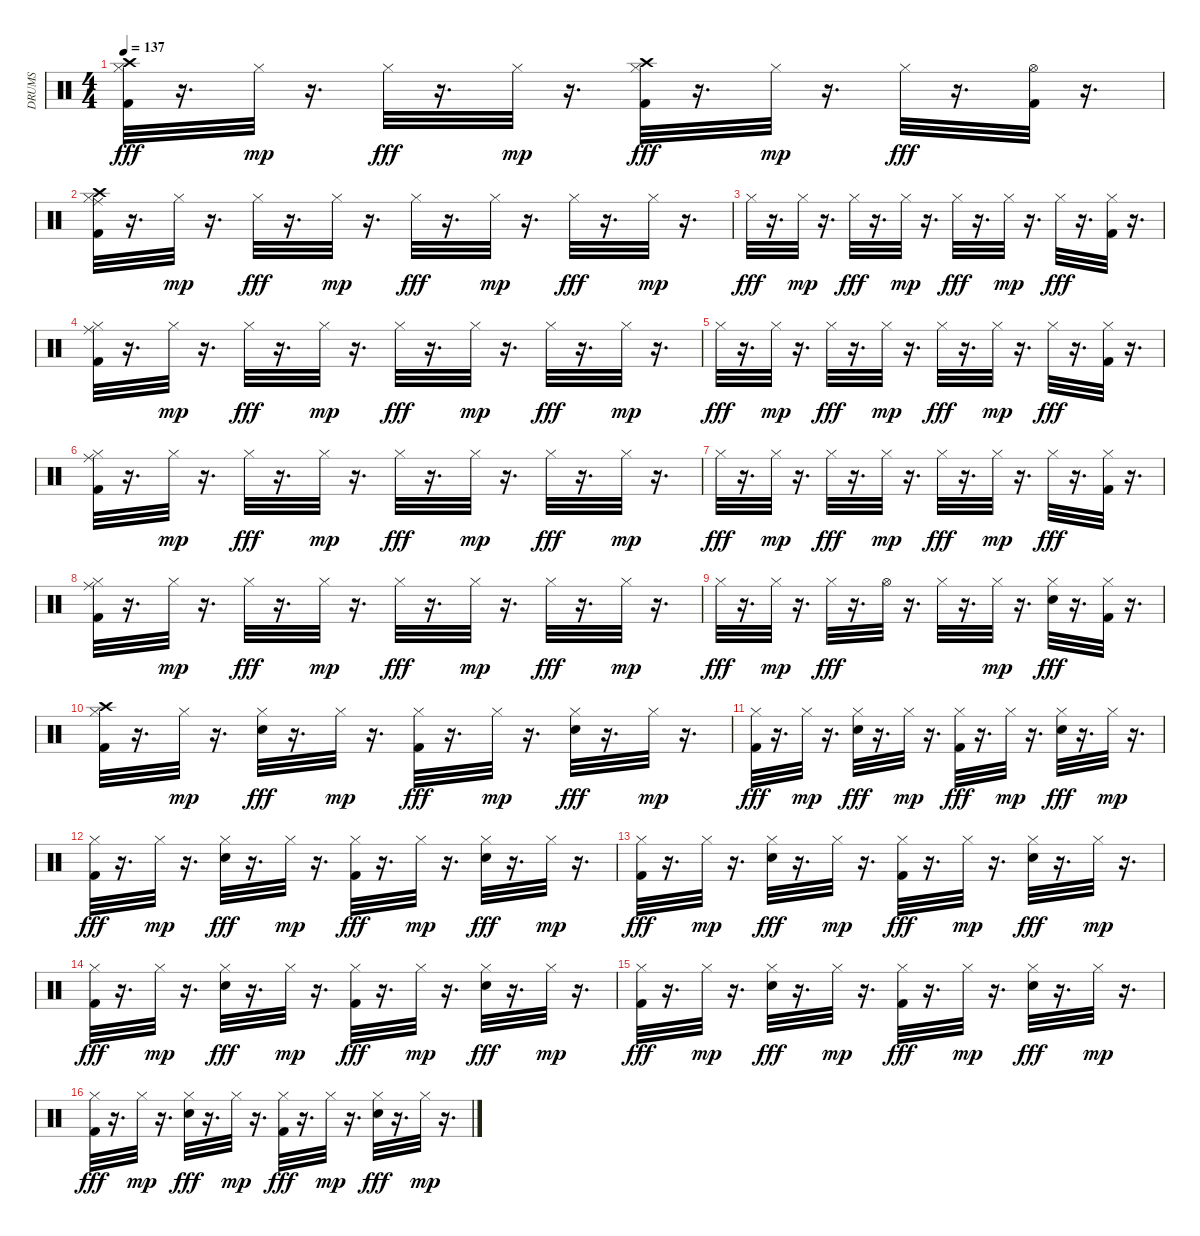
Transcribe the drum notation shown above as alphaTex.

\track ("DRUMS" "DRUMS") {instrument percussion}
\staff {score}
\articulation defaults
\ts (4 4)
\tempo 137
\clef neutral
\ks c
("Crash high (hit)" "Hi-Hat (closed)" "Kick (hit) 2").32{dy fff} r.16{d} "Hi-Hat (closed)".32{dy mp} r.16{d} "Hi-Hat (closed)".32{dy fff} r.16{d} "Hi-Hat (closed)".32{dy mp} r.16{d} ("Crash high (hit)" "Hi-Hat (closed)" "Kick (hit) 2").32{dy fff} r.16{d} "Hi-Hat (closed)".32{dy mp} r.16{d} "Hi-Hat (closed)".32{dy fff} r.16{d} ("Hi-Hat (open)" "Kick (hit) 2").32 r.16{d} |
("Crash high (hit)" "Ride (middle)" "Hi-Hat (closed)" "Kick (hit) 2").32 r.16{d} "Hi-Hat (closed)".32{dy mp} r.16{d} "Hi-Hat (closed)".32{dy fff} r.16{d} "Hi-Hat (closed)".32{dy mp} r.16{d} "Hi-Hat (closed)".32{dy fff} r.16{d} "Hi-Hat (closed)".32{dy mp} r.16{d} "Hi-Hat (closed)".32{dy fff} r.16{d} "Hi-Hat (closed)".32{dy mp} r.16{d} |
"Hi-Hat (closed)".32{dy fff} r.16{d} "Hi-Hat (closed)".32{dy mp} r.16{d} "Hi-Hat (closed)".32{dy fff} r.16{d} "Hi-Hat (closed)".32{dy mp} r.16{d} "Hi-Hat (closed)".32{dy fff} r.16{d} "Hi-Hat (closed)".32{dy mp} r.16{d} "Hi-Hat (closed)".32{dy fff} r.16{d} ("Hi-Hat (closed)" "Kick (hit) 2").32 r.16{d} |
("Ride (middle)" "Hi-Hat (closed)" "Kick (hit) 2").32 r.16{d} "Hi-Hat (closed)".32{dy mp} r.16{d} "Hi-Hat (closed)".32{dy fff} r.16{d} "Hi-Hat (closed)".32{dy mp} r.16{d} "Hi-Hat (closed)".32{dy fff} r.16{d} "Hi-Hat (closed)".32{dy mp} r.16{d} "Hi-Hat (closed)".32{dy fff} r.16{d} "Hi-Hat (closed)".32{dy mp} r.16{d} |
"Hi-Hat (closed)".32{dy fff} r.16{d} "Hi-Hat (closed)".32{dy mp} r.16{d} "Hi-Hat (closed)".32{dy fff} r.16{d} "Hi-Hat (closed)".32{dy mp} r.16{d} "Hi-Hat (closed)".32{dy fff} r.16{d} "Hi-Hat (closed)".32{dy mp} r.16{d} "Hi-Hat (closed)".32{dy fff} r.16{d} ("Hi-Hat (closed)" "Kick (hit) 2").32 r.16{d} |
("Ride (middle)" "Hi-Hat (closed)" "Kick (hit) 2").32 r.16{d} "Hi-Hat (closed)".32{dy mp} r.16{d} "Hi-Hat (closed)".32{dy fff} r.16{d} "Hi-Hat (closed)".32{dy mp} r.16{d} "Hi-Hat (closed)".32{dy fff} r.16{d} "Hi-Hat (closed)".32{dy mp} r.16{d} "Hi-Hat (closed)".32{dy fff} r.16{d} "Hi-Hat (closed)".32{dy mp} r.16{d} |
"Hi-Hat (closed)".32{dy fff} r.16{d} "Hi-Hat (closed)".32{dy mp} r.16{d} "Hi-Hat (closed)".32{dy fff} r.16{d} "Hi-Hat (closed)".32{dy mp} r.16{d} "Hi-Hat (closed)".32{dy fff} r.16{d} "Hi-Hat (closed)".32{dy mp} r.16{d} "Hi-Hat (closed)".32{dy fff} r.16{d} ("Hi-Hat (closed)" "Kick (hit) 2").32 r.16{d} |
("Ride (middle)" "Hi-Hat (closed)" "Kick (hit) 2").32 r.16{d} "Hi-Hat (closed)".32{dy mp} r.16{d} "Hi-Hat (closed)".32{dy fff} r.16{d} "Hi-Hat (closed)".32{dy mp} r.16{d} "Hi-Hat (closed)".32{dy fff} r.16{d} "Hi-Hat (closed)".32{dy mp} r.16{d} "Hi-Hat (closed)".32{dy fff} r.16{d} "Hi-Hat (closed)".32{dy mp} r.16{d} |
"Hi-Hat (closed)".32{dy fff} r.16{d} "Hi-Hat (closed)".32{dy mp} r.16{d} "Hi-Hat (closed)".32{dy fff} r.16{d} "Hi-Hat (open)".32 r.16{d} "Hi-Hat (closed)".32 r.16{d} "Hi-Hat (closed)".32{dy mp} r.16{d} ("Hi-Hat (closed)" "Snare (hit) 2").32{dy fff} r.16{d} ("Hi-Hat (closed)" "Kick (hit) 2").32 r.16{d} |
("Crash high (hit)" "Hi-Hat (closed)" "Kick (hit) 2").32 r.16{d} "Hi-Hat (closed)".32{dy mp} r.16{d} ("Hi-Hat (closed)" "Snare (hit) 2").32{dy fff} r.16{d} "Hi-Hat (closed)".32{dy mp} r.16{d} ("Hi-Hat (closed)" "Kick (hit) 2").32{dy fff} r.16{d} "Hi-Hat (closed)".32{dy mp} r.16{d} ("Hi-Hat (closed)" "Snare (hit) 2").32{dy fff} r.16{d} "Hi-Hat (closed)".32{dy mp} r.16{d} |
("Hi-Hat (closed)" "Kick (hit) 2").32{dy fff} r.16{d} "Hi-Hat (closed)".32{dy mp} r.16{d} ("Snare (hit) 2" "Hi-Hat (closed)").32{dy fff} r.16{d} "Hi-Hat (closed)".32{dy mp} r.16{d} ("Hi-Hat (closed)" "Kick (hit) 2").32{dy fff} r.16{d} "Hi-Hat (closed)".32{dy mp} r.16{d} ("Hi-Hat (closed)" "Snare (hit) 2").32{dy fff} r.16{d} "Hi-Hat (closed)".32{dy mp} r.16{d} |
("Kick (hit) 2" "Hi-Hat (closed)").32{dy fff} r.16{d} "Hi-Hat (closed)".32{dy mp} r.16{d} ("Hi-Hat (closed)" "Snare (hit) 2").32{dy fff} r.16{d} "Hi-Hat (closed)".32{dy mp} r.16{d} ("Hi-Hat (closed)" "Kick (hit) 2").32{dy fff} r.16{d} "Hi-Hat (closed)".32{dy mp} r.16{d} ("Hi-Hat (closed)" "Snare (hit) 2").32{dy fff} r.16{d} "Hi-Hat (closed)".32{dy mp} r.16{d} |
("Hi-Hat (closed)" "Kick (hit) 2").32{dy fff} r.16{d} "Hi-Hat (closed)".32{dy mp} r.16{d} ("Hi-Hat (closed)" "Snare (hit) 2").32{dy fff} r.16{d} "Hi-Hat (closed)".32{dy mp} r.16{d} ("Hi-Hat (closed)" "Kick (hit) 2").32{dy fff} r.16{d} "Hi-Hat (closed)".32{dy mp} r.16{d} ("Snare (hit) 2" "Hi-Hat (closed)").32{dy fff} r.16{d} "Hi-Hat (closed)".32{dy mp} r.16{d} |
("Hi-Hat (closed)" "Kick (hit) 2").32{dy fff} r.16{d} "Hi-Hat (closed)".32{dy mp} r.16{d} ("Hi-Hat (closed)" "Snare (hit) 2").32{dy fff} r.16{d} "Hi-Hat (closed)".32{dy mp} r.16{d} ("Hi-Hat (closed)" "Kick (hit) 2").32{dy fff} r.16{d} "Hi-Hat (closed)".32{dy mp} r.16{d} ("Hi-Hat (closed)" "Snare (hit) 2").32{dy fff} r.16{d} "Hi-Hat (closed)".32{dy mp} r.16{d} |
("Hi-Hat (closed)" "Kick (hit) 2").32{dy fff} r.16{d} "Hi-Hat (closed)".32{dy mp} r.16{d} ("Hi-Hat (closed)" "Snare (hit) 2").32{dy fff} r.16{d} "Hi-Hat (closed)".32{dy mp} r.16{d} ("Hi-Hat (closed)" "Kick (hit) 2").32{dy fff} r.16{d} "Hi-Hat (closed)".32{dy mp} r.16{d} ("Hi-Hat (closed)" "Snare (hit) 2").32{dy fff} r.16{d} "Hi-Hat (closed)".32{dy mp} r.16{d} |
("Kick (hit) 2" "Hi-Hat (closed)").32{dy fff} r.16{d} "Hi-Hat (closed)".32{dy mp} r.16{d} ("Hi-Hat (closed)" "Snare (hit) 2").32{dy fff} r.16{d} "Hi-Hat (closed)".32{dy mp} r.16{d} ("Hi-Hat (closed)" "Kick (hit) 2").32{dy fff} r.16{d} "Hi-Hat (closed)".32{dy mp} r.16{d} ("Hi-Hat (closed)" "Snare (hit) 2").32{dy fff} r.16{d} "Hi-Hat (closed)".32{dy mp} r.16{d}
